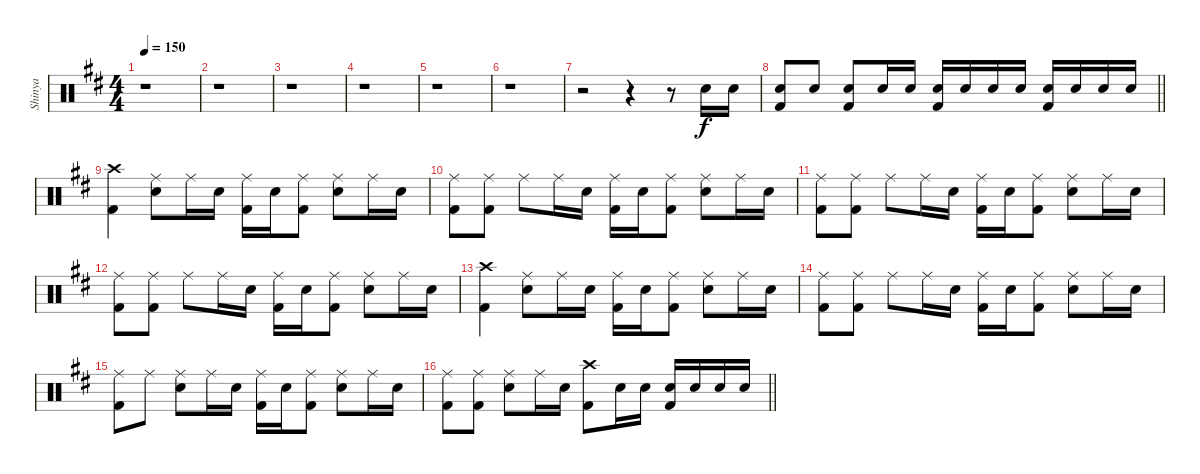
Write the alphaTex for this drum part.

\track ("Shinya" "Shinya") {instrument percussion}
\staff {score}
\articulation defaults
\ts (4 4)
\tempo 150
\clef neutral
\ks d
r.1{dy f} |
r.1 |
r.1 |
r.1 |
r.1 |
r.1 |
r.2 r.4 r.8 "Electric Snare (hit)".16 "Electric Snare (hit)".16 |
\barLineRight lightlight
("Electric Snare (hit)" "Kick (hit) 2").8 "Electric Snare (hit)".8 ("Electric Snare (hit)" "Kick (hit) 2").8 "Electric Snare (hit)".16 "Electric Snare (hit)".16 ("Electric Snare (hit)" "Kick (hit) 2").16 "Electric Snare (hit)".16 "Electric Snare (hit)".16 "Electric Snare (hit)".16 ("Electric Snare (hit)" "Kick (hit) 2").16 "Electric Snare (hit)".16 "Electric Snare (hit)".16 "Electric Snare (hit)".16 |
("Crash high (hit)" "Kick (hit) 2").4 ("Ride (middle)" "Electric Snare (hit)").8 "Ride (middle)".16 "Electric Snare (hit)".16 ("Ride (middle)" "Kick (hit) 2").16 "Electric Snare (hit)".16 ("Ride (middle)" "Kick (hit) 2").8 ("Ride (middle)" "Electric Snare (hit)").8 "Ride (middle)".16 "Electric Snare (hit)".16 |
("Ride (middle)" "Kick (hit) 2").8 ("Ride (middle)" "Kick (hit) 2").8 "Ride (middle)".8 "Ride (middle)".16 "Electric Snare (hit)".16 ("Ride (middle)" "Kick (hit) 2").16 "Electric Snare (hit)".16 ("Ride (middle)" "Kick (hit) 2").8 ("Ride (middle)" "Electric Snare (hit)").8 "Ride (middle)".16 "Electric Snare (hit)".16 |
("Ride (middle)" "Kick (hit) 2").8 ("Ride (middle)" "Kick (hit) 2").8 "Ride (middle)".8 "Ride (middle)".16 "Electric Snare (hit)".16 ("Ride (middle)" "Kick (hit) 2").16 "Electric Snare (hit)".16 ("Ride (middle)" "Kick (hit) 2").8 ("Ride (middle)" "Electric Snare (hit)").8 "Ride (middle)".16 "Electric Snare (hit)".16 |
("Ride (middle)" "Kick (hit) 2").8 ("Ride (middle)" "Kick (hit) 2").8 "Ride (middle)".8 "Ride (middle)".16 "Electric Snare (hit)".16 ("Ride (middle)" "Kick (hit) 2").16 "Electric Snare (hit)".16 ("Ride (middle)" "Kick (hit) 2").8 ("Ride (middle)" "Electric Snare (hit)").8 "Ride (middle)".16 "Electric Snare (hit)".16 |
("Crash high (hit)" "Kick (hit) 2").4 ("Ride (middle)" "Electric Snare (hit)").8 "Ride (middle)".16 "Electric Snare (hit)".16 ("Ride (middle)" "Kick (hit) 2").16 "Electric Snare (hit)".16 ("Ride (middle)" "Kick (hit) 2").8 ("Ride (middle)" "Electric Snare (hit)").8 "Ride (middle)".16 "Electric Snare (hit)".16 |
("Ride (middle)" "Kick (hit) 2").8 ("Ride (middle)" "Kick (hit) 2").8 "Ride (middle)".8 "Ride (middle)".16 "Electric Snare (hit)".16 ("Ride (middle)" "Kick (hit) 2").16 "Electric Snare (hit)".16 ("Ride (middle)" "Kick (hit) 2").8 ("Ride (middle)" "Electric Snare (hit)").8 "Ride (middle)".16 "Electric Snare (hit)".16 |
("Ride (middle)" "Kick (hit) 2").8 "Ride (middle)".8 ("Ride (middle)" "Electric Snare (hit)").8 "Ride (middle)".16 "Electric Snare (hit)".16 ("Ride (middle)" "Kick (hit) 2").16 "Electric Snare (hit)".16 ("Ride (middle)" "Kick (hit) 2").8 ("Ride (middle)" "Electric Snare (hit)").8 "Ride (middle)".16 "Electric Snare (hit)".16 |
\barLineRight lightlight
("Ride (middle)" "Kick (hit) 2").8 ("Ride (middle)" "Kick (hit) 2").8 ("Ride (middle)" "Electric Snare (hit)").8 "Ride (middle)".16 "Electric Snare (hit)".16 ("Crash high (hit)" "Kick (hit) 2").8 "Electric Snare (hit)".16 "Electric Snare (hit)".16 ("Electric Snare (hit)" "Kick (hit) 2").16 "Electric Snare (hit)".16 "Electric Snare (hit)".16 "Electric Snare (hit)".16
